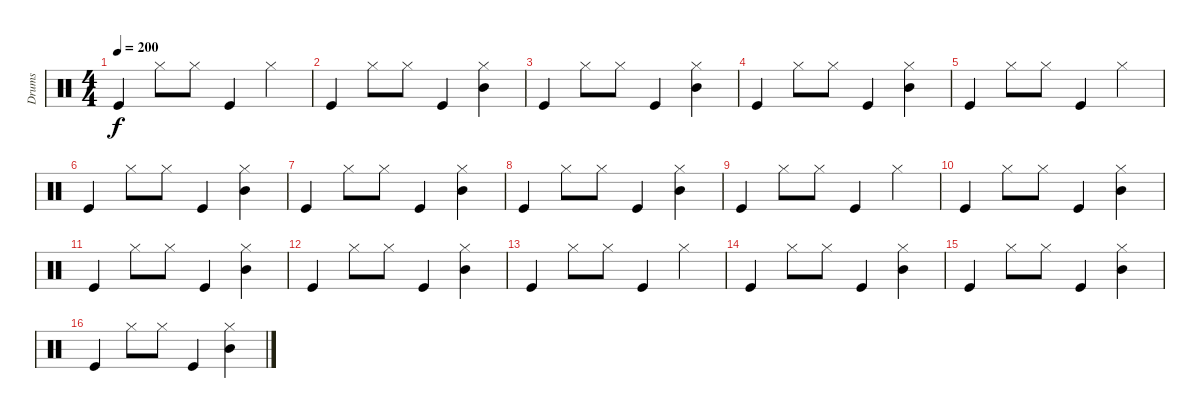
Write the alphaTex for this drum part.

\track ("Drums" "Drums") {instrument percussion}
\staff {score}
\articulation defaults
\ts (4 4)
\tempo 200
\clef neutral
\ks c "Kick (hit)".4{dy f} "Hi-Hat (closed)".8 "Hi-Hat (closed)".8 "Kick (hit)".4 "Hi-Hat (closed)".4
|
"Kick (hit)".4 "Hi-Hat (closed)".8 "Hi-Hat (closed)".8 "Kick (hit)".4 ("Mid Tom (hit)" "Hi-Hat (closed)").4 |
"Kick (hit)".4 "Hi-Hat (closed)".8 "Hi-Hat (closed)".8 "Kick (hit)".4 ("Mid Tom (hit)" "Hi-Hat (closed)").4 |
"Kick (hit)".4 "Hi-Hat (closed)".8 "Hi-Hat (closed)".8 "Kick (hit)".4 ("Mid Tom (hit)" "Hi-Hat (closed)").4 |
"Kick (hit)".4 "Hi-Hat (closed)".8 "Hi-Hat (closed)".8 "Kick (hit)".4 "Hi-Hat (closed)".4 |
"Kick (hit)".4 "Hi-Hat (closed)".8 "Hi-Hat (closed)".8 "Kick (hit)".4 ("Mid Tom (hit)" "Hi-Hat (closed)").4 |
"Kick (hit)".4 "Hi-Hat (closed)".8 "Hi-Hat (closed)".8 "Kick (hit)".4 ("Mid Tom (hit)" "Hi-Hat (closed)").4 |
"Kick (hit)".4 "Hi-Hat (closed)".8 "Hi-Hat (closed)".8 "Kick (hit)".4 ("Mid Tom (hit)" "Hi-Hat (closed)").4 |
"Kick (hit)".4 "Hi-Hat (closed)".8 "Hi-Hat (closed)".8 "Kick (hit)".4 "Hi-Hat (closed)".4 |
"Kick (hit)".4 "Hi-Hat (closed)".8 "Hi-Hat (closed)".8 "Kick (hit)".4 ("Mid Tom (hit)" "Hi-Hat (closed)").4 |
"Kick (hit)".4 "Hi-Hat (closed)".8 "Hi-Hat (closed)".8 "Kick (hit)".4 ("Mid Tom (hit)" "Hi-Hat (closed)").4 |
"Kick (hit)".4 "Hi-Hat (closed)".8 "Hi-Hat (closed)".8 "Kick (hit)".4 ("Mid Tom (hit)" "Hi-Hat (closed)").4 |
"Kick (hit)".4 "Hi-Hat (closed)".8 "Hi-Hat (closed)".8 "Kick (hit)".4 "Hi-Hat (closed)".4 |
"Kick (hit)".4 "Hi-Hat (closed)".8 "Hi-Hat (closed)".8 "Kick (hit)".4 ("Mid Tom (hit)" "Hi-Hat (closed)").4 |
"Kick (hit)".4 "Hi-Hat (closed)".8 "Hi-Hat (closed)".8 "Kick (hit)".4 ("Mid Tom (hit)" "Hi-Hat (closed)").4 |
"Kick (hit)".4 "Hi-Hat (closed)".8 "Hi-Hat (closed)".8 "Kick (hit)".4 ("Mid Tom (hit)" "Hi-Hat (closed)").4
